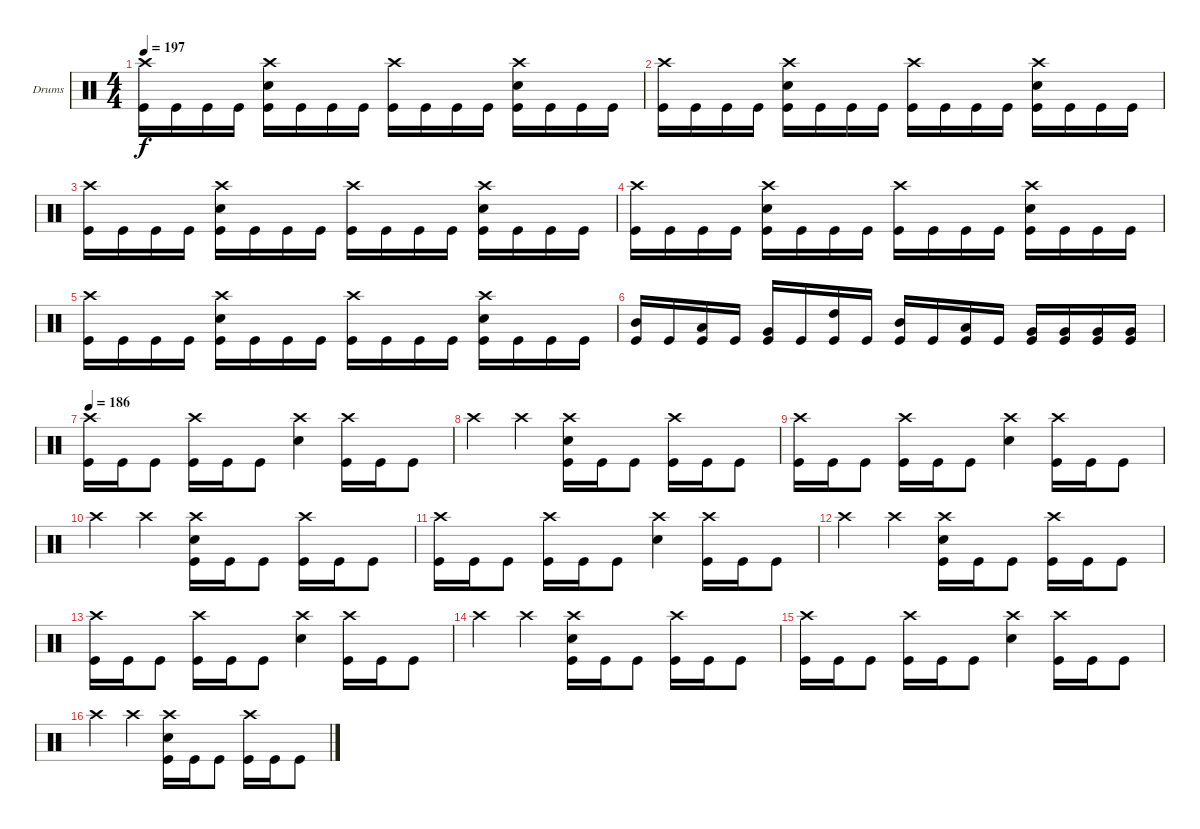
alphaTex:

\bracketExtendMode groupsimilarinstruments
\firstSystemTrackNameOrientation horizontal
\otherSystemsTrackNameOrientation horizontal
\track ("Drumkit" "Drums") {instrument percussion}
\staff {score}
\articulation defaults
\ts (4 4)
\tempo 197
\clef neutral
\ks c
("Crash high (hit)" "Kick (hit)").16{dy f} "Kick (hit)".16 "Kick (hit)".16 "Kick (hit)".16 ("Crash high (hit)" "Snare (hit) 2" "Kick (hit)").16 "Kick (hit)".16 "Kick (hit)".16 "Kick (hit)".16 ("Crash high (hit)" "Kick (hit)").16 "Kick (hit)".16 "Kick (hit)".16 "Kick (hit)".16 ("Crash high (hit)" "Snare (hit) 2" "Kick (hit)").16 "Kick (hit)".16 "Kick (hit)".16 "Kick (hit)".16 |
("Crash high (hit)" "Kick (hit)").16 "Kick (hit)".16 "Kick (hit)".16 "Kick (hit)".16 ("Crash high (hit)" "Snare (hit) 2" "Kick (hit)").16 "Kick (hit)".16 "Kick (hit)".16 "Kick (hit)".16 ("Crash high (hit)" "Kick (hit)").16 "Kick (hit)".16 "Kick (hit)".16 "Kick (hit)".16 ("Crash high (hit)" "Snare (hit) 2" "Kick (hit)").16 "Kick (hit)".16 "Kick (hit)".16 "Kick (hit)".16 |
("Crash high (hit)" "Kick (hit)").16 "Kick (hit)".16 "Kick (hit)".16 "Kick (hit)".16 ("Crash high (hit)" "Snare (hit) 2" "Kick (hit)").16 "Kick (hit)".16 "Kick (hit)".16 "Kick (hit)".16 ("Crash high (hit)" "Kick (hit)").16 "Kick (hit)".16 "Kick (hit)".16 "Kick (hit)".16 ("Crash high (hit)" "Snare (hit) 2" "Kick (hit)").16 "Kick (hit)".16 "Kick (hit)".16 "Kick (hit)".16 |
("Crash high (hit)" "Kick (hit)").16 "Kick (hit)".16 "Kick (hit)".16 "Kick (hit)".16 ("Crash high (hit)" "Snare (hit) 2" "Kick (hit)").16 "Kick (hit)".16 "Kick (hit)".16 "Kick (hit)".16 ("Crash high (hit)" "Kick (hit)").16 "Kick (hit)".16 "Kick (hit)".16 "Kick (hit)".16 ("Crash high (hit)" "Snare (hit) 2" "Kick (hit)").16 "Kick (hit)".16 "Kick (hit)".16 "Kick (hit)".16 |
("Crash high (hit)" "Kick (hit)").16 "Kick (hit)".16 "Kick (hit)".16 "Kick (hit)".16 ("Crash high (hit)" "Snare (hit) 2" "Kick (hit)").16 "Kick (hit)".16 "Kick (hit)".16 "Kick (hit)".16 ("Crash high (hit)" "Kick (hit)").16 "Kick (hit)".16 "Kick (hit)".16 "Kick (hit)".16 ("Crash high (hit)" "Snare (hit) 2" "Kick (hit)").16 "Kick (hit)".16 "Kick (hit)".16 "Kick (hit)".16 |
("Mid Tom (hit)" "Kick (hit)").16 "Kick (hit)".16 ("Low Tom (hit)" "Kick (hit)").16 "Kick (hit)".16 ("Very Low Tom (hit)" "Kick (hit)").16 "Kick (hit)".16 ("High Tom (hit)" "Kick (hit)").16 "Kick (hit)".16 ("Mid Tom (hit)" "Kick (hit)").16 "Kick (hit)".16 ("Low Tom (hit)" "Kick (hit)").16 "Kick (hit)".16 ("Very Low Tom (hit)" "Kick (hit)").16 ("Very Low Tom (hit)" "Kick (hit)").16 ("Very Low Tom (hit)" "Kick (hit)").16 ("Very Low Tom (hit)" "Kick (hit)").16 |
\tempo 186
("Crash high (hit)" "Kick (hit)").16 "Kick (hit)".16 "Kick (hit)".8 ("Crash high (hit)" "Kick (hit)").16 "Kick (hit)".16 "Kick (hit)".8 ("Crash high (hit)" "Snare (hit) 2").4 ("Crash high (hit)" "Kick (hit)").16 "Kick (hit)".16 "Kick (hit)".8 |
"Crash high (hit)".4 "Crash high (hit)".4 ("Crash high (hit)" "Snare (hit) 2" "Kick (hit)").16 "Kick (hit)".16 "Kick (hit)".8 ("Crash high (hit)" "Kick (hit)").16 "Kick (hit)".16 "Kick (hit)".8 |
("Crash high (hit)" "Kick (hit)").16 "Kick (hit)".16 "Kick (hit)".8 ("Crash high (hit)" "Kick (hit)").16 "Kick (hit)".16 "Kick (hit)".8 ("Crash high (hit)" "Snare (hit) 2").4 ("Crash high (hit)" "Kick (hit)").16 "Kick (hit)".16 "Kick (hit)".8 |
"Crash high (hit)".4 "Crash high (hit)".4 ("Crash high (hit)" "Snare (hit) 2" "Kick (hit)").16 "Kick (hit)".16 "Kick (hit)".8 ("Crash high (hit)" "Kick (hit)").16 "Kick (hit)".16 "Kick (hit)".8 |
("Crash high (hit)" "Kick (hit)").16 "Kick (hit)".16 "Kick (hit)".8 ("Crash high (hit)" "Kick (hit)").16 "Kick (hit)".16 "Kick (hit)".8 ("Crash high (hit)" "Snare (hit) 2").4 ("Crash high (hit)" "Kick (hit)").16 "Kick (hit)".16 "Kick (hit)".8 |
"Crash high (hit)".4 "Crash high (hit)".4 ("Crash high (hit)" "Snare (hit) 2" "Kick (hit)").16 "Kick (hit)".16 "Kick (hit)".8 ("Crash high (hit)" "Kick (hit)").16 "Kick (hit)".16 "Kick (hit)".8 |
("Crash high (hit)" "Kick (hit)").16 "Kick (hit)".16 "Kick (hit)".8 ("Crash high (hit)" "Kick (hit)").16 "Kick (hit)".16 "Kick (hit)".8 ("Crash high (hit)" "Snare (hit) 2").4 ("Crash high (hit)" "Kick (hit)").16 "Kick (hit)".16 "Kick (hit)".8 |
"Crash high (hit)".4 "Crash high (hit)".4 ("Crash high (hit)" "Snare (hit) 2" "Kick (hit)").16 "Kick (hit)".16 "Kick (hit)".8 ("Crash high (hit)" "Kick (hit)").16 "Kick (hit)".16 "Kick (hit)".8 |
("Crash high (hit)" "Kick (hit)").16 "Kick (hit)".16 "Kick (hit)".8 ("Crash high (hit)" "Kick (hit)").16 "Kick (hit)".16 "Kick (hit)".8 ("Crash high (hit)" "Snare (hit) 2").4 ("Crash high (hit)" "Kick (hit)").16 "Kick (hit)".16 "Kick (hit)".8 |
"Crash high (hit)".4 "Crash high (hit)".4 ("Crash high (hit)" "Snare (hit) 2" "Kick (hit)").16 "Kick (hit)".16 "Kick (hit)".8 ("Crash high (hit)" "Kick (hit)").16 "Kick (hit)".16 "Kick (hit)".8
